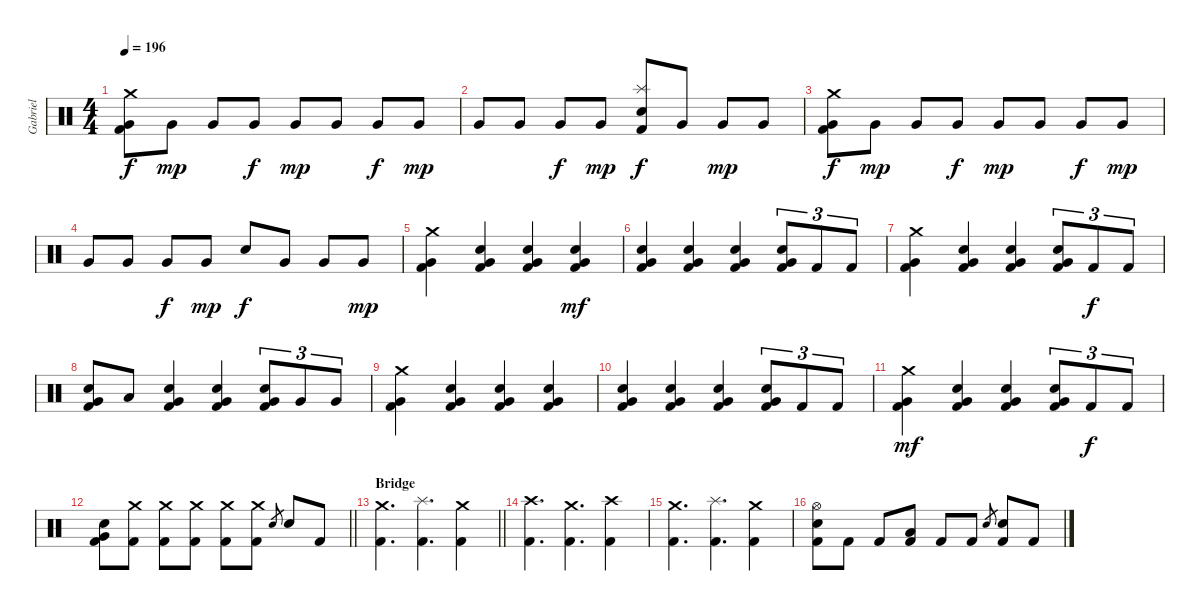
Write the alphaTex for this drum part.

\track ("Gabriel" "Gabriel") {instrument percussion}
\staff {score}
\articulation defaults
\ts (4 4)
\tempo 196
\clef neutral
\ks c
("Crash medium (hit)" "Very Low Tom (hit)" "Kick (hit) 2").8{dy f} "Very Low Tom (hit)".8{dy mp} "Very Low Tom (hit)".8 "Very Low Tom (hit)".8{dy f} "Very Low Tom (hit)".8{dy mp} "Very Low Tom (hit)".8 "Very Low Tom (hit)".8{dy f} "Very Low Tom (hit)".8{dy mp} |
"Very Low Tom (hit)".8 "Very Low Tom (hit)".8 "Very Low Tom (hit)".8{dy f} "Very Low Tom (hit)".8{dy mp} ("Splash (hit)" "Electric Snare (hit)" "Kick (hit) 2").8{dy f} "Very Low Tom (hit)".8 "Very Low Tom (hit)".8{dy mp} "Very Low Tom (hit)".8 |
("Crash medium (hit)" "Very Low Tom (hit)" "Kick (hit) 2").8{dy f} "Very Low Tom (hit)".8{dy mp} "Very Low Tom (hit)".8 "Very Low Tom (hit)".8{dy f} "Very Low Tom (hit)".8{dy mp} "Very Low Tom (hit)".8 "Very Low Tom (hit)".8{dy f} "Very Low Tom (hit)".8{dy mp} |
"Very Low Tom (hit)".8 "Very Low Tom (hit)".8 "Very Low Tom (hit)".8{dy f} "Very Low Tom (hit)".8{dy mp} "Electric Snare (hit)".8{dy f} "Very Low Tom (hit)".8 "Very Low Tom (hit)".8 "Very Low Tom (hit)".8{dy mp} |
("Crash medium (hit)" "Very Low Tom (hit)" "Kick (hit) 2").4 ("Electric Snare (hit)" "Very Low Tom (hit)" "Kick (hit) 2").4 ("Electric Snare (hit)" "Very Low Tom (hit)" "Kick (hit) 2").4 ("Electric Snare (hit)" "Very Low Tom (hit)" "Kick (hit) 2").4{dy mf} |
("Electric Snare (hit)" "Very Low Tom (hit)" "Kick (hit) 2").4 ("Electric Snare (hit)" "Very Low Tom (hit)" "Kick (hit) 2").4 ("Electric Snare (hit)" "Very Low Tom (hit)" "Kick (hit) 2").4 ("Electric Snare (hit)" "Very Low Tom (hit)" "Kick (hit) 2").8{tu (3 2)} "Kick (hit) 2".8{tu (3 2)} "Kick (hit) 2".8{tu (3 2)} |
("Crash medium (hit)" "Very Low Tom (hit)" "Kick (hit) 2").4 ("Electric Snare (hit)" "Very Low Tom (hit)" "Kick (hit) 2").4 ("Electric Snare (hit)" "Very Low Tom (hit)" "Kick (hit) 2").4 ("Electric Snare (hit)" "Very Low Tom (hit)" "Kick (hit) 2").8{tu (3 2)} "Kick (hit) 2".8{tu (3 2) dy f} "Kick (hit) 2".8{tu (3 2)} |
("Very Low Tom (hit)" "Electric Snare (hit)" "Kick (hit) 2").8 "Low Tom (hit)".8 ("Very Low Tom (hit)" "Electric Snare (hit)" "Kick (hit) 2").4 ("Very Low Tom (hit)" "Electric Snare (hit)" "Kick (hit) 2").4 ("Very Low Tom (hit)" "Electric Snare (hit)" "Kick (hit) 2").8{tu (3 2)} "Very Low Tom (hit)".8{tu (3 2)} "Very Low Tom (hit)".8{tu (3 2)} |
("Crash medium (hit)" "Very Low Tom (hit)" "Kick (hit) 2").4 ("Electric Snare (hit)" "Very Low Tom (hit)" "Kick (hit) 2").4 ("Electric Snare (hit)" "Very Low Tom (hit)" "Kick (hit) 2").4 ("Electric Snare (hit)" "Very Low Tom (hit)" "Kick (hit) 2").4 |
("Electric Snare (hit)" "Very Low Tom (hit)" "Kick (hit) 2").4 ("Electric Snare (hit)" "Very Low Tom (hit)" "Kick (hit) 2").4 ("Electric Snare (hit)" "Very Low Tom (hit)" "Kick (hit) 2").4 ("Electric Snare (hit)" "Very Low Tom (hit)" "Kick (hit) 2").8{tu (3 2)} "Kick (hit) 2".8{tu (3 2)} "Kick (hit) 2".8{tu (3 2)} |
("Crash medium (hit)" "Very Low Tom (hit)" "Kick (hit) 2").4{dy mf} ("Electric Snare (hit)" "Very Low Tom (hit)" "Kick (hit) 2").4 ("Electric Snare (hit)" "Very Low Tom (hit)" "Kick (hit) 2").4 ("Electric Snare (hit)" "Very Low Tom (hit)" "Kick (hit) 2").8{tu (3 2)} "Kick (hit) 2".8{tu (3 2) dy f} "Kick (hit) 2".8{tu (3 2)} |
\barLineRight lightlight
("Very Low Tom (hit)" "Electric Snare (hit)" "Kick (hit) 2").8 ("Crash medium (hit)" "Kick (hit) 2").8 ("Crash medium (hit)" "Kick (hit) 2").8 ("Crash medium (hit)" "Kick (hit) 2").8 ("Crash medium (hit)" "Kick (hit) 2").8 ("Crash medium (hit)" "Kick (hit) 2").8 "Electric Snare (hit)".8{gr} "Electric Snare (hit)".8 "Kick (hit) 2".8 |
\section ("" "Bridge")
\barLineRight lightlight
("Crash medium (hit)" "Kick (hit) 2").4{d} ("Splash (hit)" "Kick (hit) 2").4{d} ("Crash medium (hit)" "Kick (hit) 2").4 |
("Crash high (hit)" "Kick (hit) 2").4{d} ("Crash medium (hit)" "Kick (hit) 2").4{d} ("Crash high (hit)" "Kick (hit) 2").4 |
("Crash medium (hit)" "Kick (hit) 2").4{d} ("Splash (hit)" "Kick (hit) 2").4{d} ("Crash medium (hit)" "Kick (hit) 2").4 |
("Hi-Hat (open)" "Electric Snare (hit)" "Kick (hit) 2").8 "Kick (hit) 2".8 "Kick (hit) 2".8 ("Low Tom (hit)" "Kick (hit) 2").8 "Kick (hit) 2".8 "Kick (hit) 2".8 "Electric Snare (hit)".8{gr} ("Electric Snare (hit)" "Kick (hit) 2").8 "Kick (hit) 2".8
